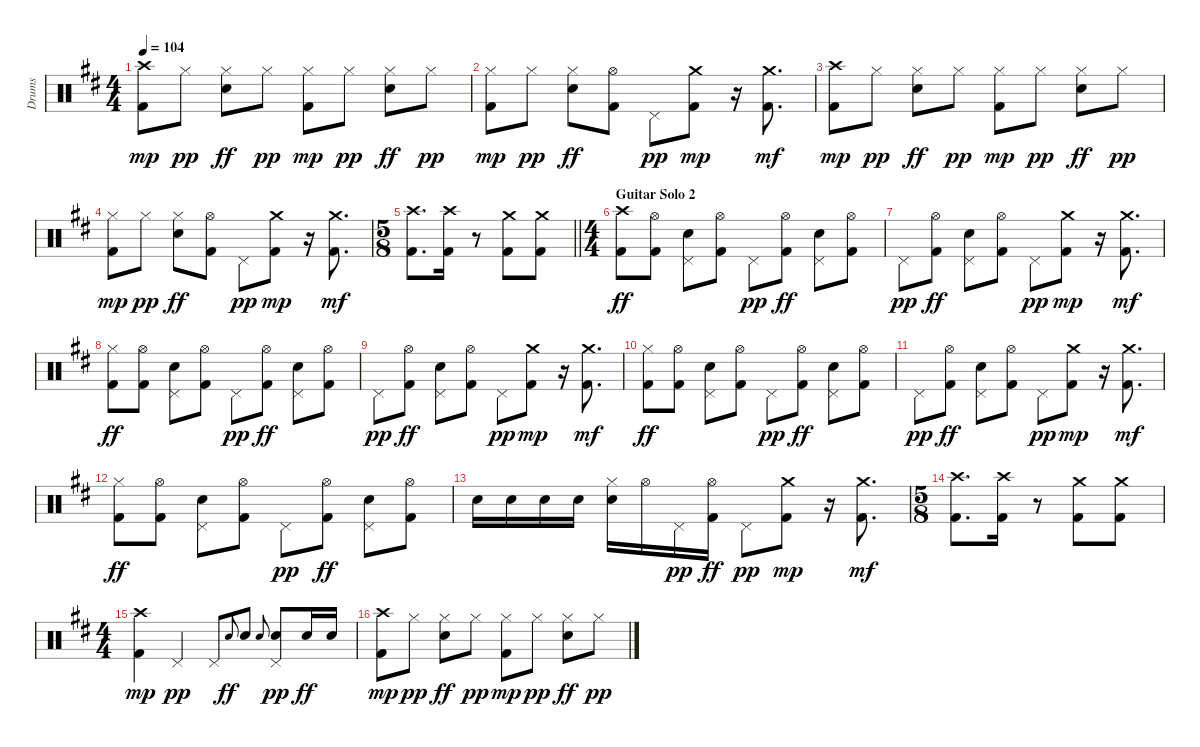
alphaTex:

\track ("Drums" "Drums") {instrument percussion}
\staff {score}
\articulation defaults
\ts (4 4)
\tempo 104
\clef neutral
\ks bminor
("Crash high (hit)" "Kick (hit) 2").8{dy mp} "Hi-Hat (closed)".8{dy pp} ("Hi-Hat (closed)" "Electric Snare (hit)").8{dy ff} "Hi-Hat (closed)".8{dy pp} ("Hi-Hat (closed)" "Kick (hit) 2").8{dy mp} "Hi-Hat (closed)".8{dy pp} ("Hi-Hat (closed)" "Electric Snare (hit)").8{dy ff} "Hi-Hat (closed)".8{dy pp} |
("Hi-Hat (closed)" "Kick (hit) 2").8{dy mp} "Hi-Hat (closed)".8{dy pp} ("Hi-Hat (closed)" "Electric Snare (hit)").8{dy ff} ("Hi-Hat (open)" "Kick (hit) 2").8 "Pedal Hi-Hat (hit)".8{dy pp} ("Kick (hit) 2" "Crash medium (hit)").8{dy mp} r.16 ("Kick (hit) 2" "Crash medium (hit)").8{d dy mf} |
("Crash high (hit)" "Kick (hit) 2").8{dy mp} "Hi-Hat (closed)".8{dy pp} ("Hi-Hat (closed)" "Electric Snare (hit)").8{dy ff} "Hi-Hat (closed)".8{dy pp} ("Hi-Hat (closed)" "Kick (hit) 2").8{dy mp} "Hi-Hat (closed)".8{dy pp} ("Hi-Hat (closed)" "Electric Snare (hit)").8{dy ff} "Hi-Hat (closed)".8{dy pp} |
("Hi-Hat (closed)" "Kick (hit) 2").8{dy mp} "Hi-Hat (closed)".8{dy pp} ("Hi-Hat (closed)" "Electric Snare (hit)").8{dy ff} ("Hi-Hat (open)" "Kick (hit) 2").8 "Pedal Hi-Hat (hit)".8{dy pp} ("Kick (hit) 2" "Crash medium (hit)").8{dy mp} r.16 ("Kick (hit) 2" "Crash medium (hit)").8{d dy mf} |
\ts (5 8)
\barLineRight lightlight
("Kick (hit) 2" "Crash high (hit)").8{d} ("Kick (hit) 2" "Crash high (hit)").16 r.8 ("Kick (hit) 2" "Crash medium (hit)").8 ("Kick (hit) 2" "Crash medium (hit)").8 |
\ts (4 4)
\section ("" "Guitar Solo 2")
("Crash high (hit)" "Kick (hit) 2").8{dy ff} ("Hi-Hat (open)" "Kick (hit) 2").8 ("Pedal Hi-Hat (hit)" "Electric Snare (hit)").8 ("Hi-Hat (open)" "Kick (hit) 2").8 "Pedal Hi-Hat (hit)".8{dy pp} ("Hi-Hat (open)" "Kick (hit) 2").8{dy ff} ("Pedal Hi-Hat (hit)" "Electric Snare (hit)").8 ("Hi-Hat (open)" "Kick (hit) 2").8 |
"Pedal Hi-Hat (hit)".8{dy pp} ("Hi-Hat (open)" "Kick (hit) 2").8{dy ff} ("Pedal Hi-Hat (hit)" "Electric Snare (hit)").8 ("Hi-Hat (open)" "Kick (hit) 2").8 "Pedal Hi-Hat (hit)".8{dy pp} ("Kick (hit) 2" "Crash medium (hit)").8{dy mp} r.16 ("Kick (hit) 2" "Crash medium (hit)").8{d dy mf} |
("Hi-Hat (closed)" "Kick (hit) 2").8{dy ff} ("Hi-Hat (open)" "Kick (hit) 2").8 ("Pedal Hi-Hat (hit)" "Electric Snare (hit)").8 ("Hi-Hat (open)" "Kick (hit) 2").8 "Pedal Hi-Hat (hit)".8{dy pp} ("Hi-Hat (open)" "Kick (hit) 2").8{dy ff} ("Pedal Hi-Hat (hit)" "Electric Snare (hit)").8 ("Hi-Hat (open)" "Kick (hit) 2").8 |
"Pedal Hi-Hat (hit)".8{dy pp} ("Hi-Hat (open)" "Kick (hit) 2").8{dy ff} ("Pedal Hi-Hat (hit)" "Electric Snare (hit)").8 ("Hi-Hat (open)" "Kick (hit) 2").8 "Pedal Hi-Hat (hit)".8{dy pp} ("Kick (hit) 2" "Crash medium (hit)").8{dy mp} r.16 ("Kick (hit) 2" "Crash medium (hit)").8{d dy mf} |
("Hi-Hat (closed)" "Kick (hit) 2").8{dy ff} ("Hi-Hat (open)" "Kick (hit) 2").8 ("Pedal Hi-Hat (hit)" "Electric Snare (hit)").8 ("Hi-Hat (open)" "Kick (hit) 2").8 "Pedal Hi-Hat (hit)".8{dy pp} ("Hi-Hat (open)" "Kick (hit) 2").8{dy ff} ("Pedal Hi-Hat (hit)" "Electric Snare (hit)").8 ("Hi-Hat (open)" "Kick (hit) 2").8 |
"Pedal Hi-Hat (hit)".8{dy pp} ("Hi-Hat (open)" "Kick (hit) 2").8{dy ff} ("Pedal Hi-Hat (hit)" "Electric Snare (hit)").8 ("Hi-Hat (open)" "Kick (hit) 2").8 "Pedal Hi-Hat (hit)".8{dy pp} ("Kick (hit) 2" "Crash medium (hit)").8{dy mp} r.16 ("Kick (hit) 2" "Crash medium (hit)").8{d dy mf} |
("Hi-Hat (closed)" "Kick (hit) 2").8{dy ff} ("Hi-Hat (open)" "Kick (hit) 2").8 ("Pedal Hi-Hat (hit)" "Electric Snare (hit)").8 ("Hi-Hat (open)" "Kick (hit) 2").8 "Pedal Hi-Hat (hit)".8{dy pp} ("Hi-Hat (open)" "Kick (hit) 2").8{dy ff} ("Pedal Hi-Hat (hit)" "Electric Snare (hit)").8 ("Hi-Hat (open)" "Kick (hit) 2").8 |
"Electric Snare (hit)".16 "Electric Snare (hit)".16 "Electric Snare (hit)".16 "Electric Snare (hit)".16 ("Hi-Hat (closed)" "Electric Snare (hit)").16 "Hi-Hat (open)".16 "Pedal Hi-Hat (hit)".16{dy pp} ("Kick (hit) 2" "Hi-Hat (open)").16{dy ff} "Pedal Hi-Hat (hit)".8{dy pp} ("Kick (hit) 2" "Crash medium (hit)").8{dy mp} r.16 ("Kick (hit) 2" "Crash medium (hit)").8{d dy mf} |
\ts (5 8)
("Kick (hit) 2" "Crash high (hit)").8{d} ("Kick (hit) 2" "Crash high (hit)").16 r.8 ("Kick (hit) 2" "Crash medium (hit)").8{beam merge} ("Kick (hit) 2" "Crash medium (hit)").8 |
\ts (4 4)
("Kick (hit) 2" "Crash high (hit)").4{dy mp} "Pedal Hi-Hat (hit)".4{dy pp} "Pedal Hi-Hat (hit)".8 "Electric Snare (hit)".8{gr onbeat dy ff} "Electric Snare (hit)".8 "Electric Snare (hit)".8{gr onbeat} ("Electric Snare (hit)" "Pedal Hi-Hat (hit)").8{dy pp} "Electric Snare (hit)".16{dy ff} "Electric Snare (hit)".16 |
("Crash high (hit)" "Kick (hit) 2").8{dy mp} "Hi-Hat (closed)".8{dy pp} ("Hi-Hat (closed)" "Electric Snare (hit)").8{dy ff} "Hi-Hat (closed)".8{dy pp} ("Hi-Hat (closed)" "Kick (hit) 2").8{dy mp} "Hi-Hat (closed)".8{dy pp} ("Hi-Hat (closed)" "Electric Snare (hit)").8{dy ff} "Hi-Hat (closed)".8{dy pp}
